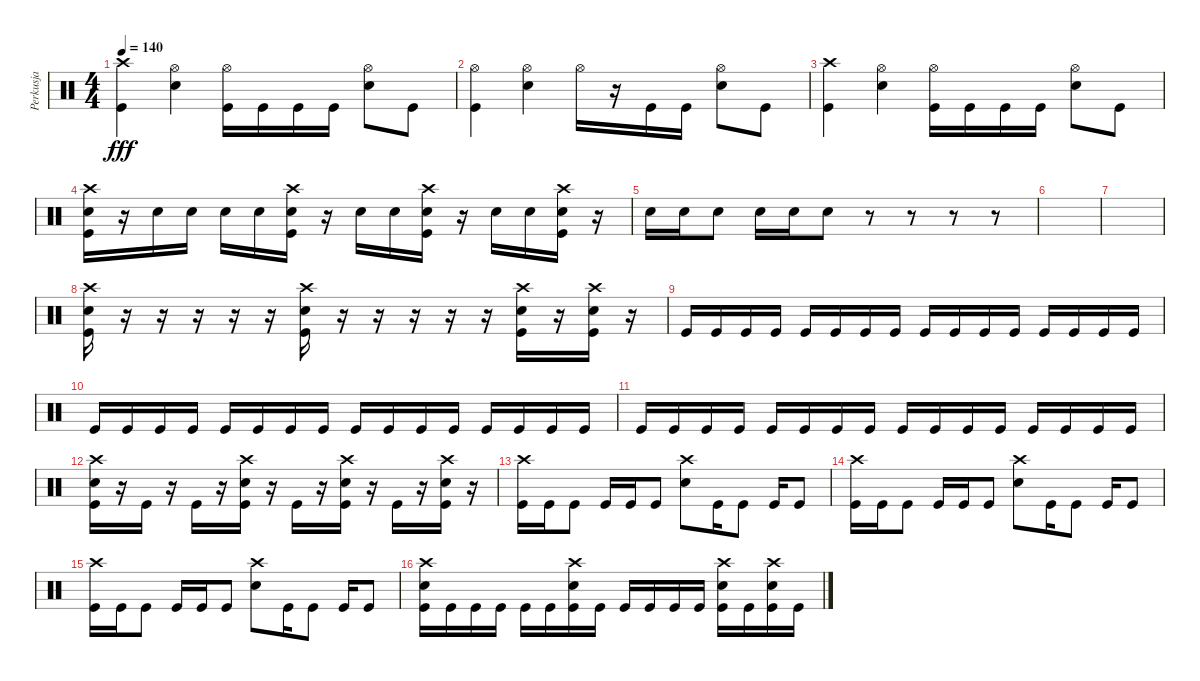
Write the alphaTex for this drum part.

\track ("Perkusja" "Perkusja") {instrument percussion}
\staff {score}
\articulation defaults
\ts (4 4)
\tempo 140
\clef neutral
\ks c
("Crash high (hit)" "Kick (hit)").4{dy fff} ("Hi-Hat (open)" "Electric Snare (hit)").4 ("Hi-Hat (open)" "Kick (hit)").16 "Kick (hit)".16 "Kick (hit)".16 "Kick (hit)".16 ("Hi-Hat (open)" "Electric Snare (hit)").8 "Kick (hit)".8 |
("Hi-Hat (open)" "Kick (hit)").4 ("Hi-Hat (open)" "Electric Snare (hit)").4 "Hi-Hat (open)".16 r.16 "Kick (hit)".16 "Kick (hit)".16 ("Hi-Hat (open)" "Electric Snare (hit)").8 "Kick (hit)".8 |
("Crash high (hit)" "Kick (hit)").4 ("Hi-Hat (open)" "Electric Snare (hit)").4 ("Hi-Hat (open)" "Kick (hit)").16 "Kick (hit)".16 "Kick (hit)".16 "Kick (hit)".16 ("Hi-Hat (open)" "Electric Snare (hit)").8 "Kick (hit)".8 |
("Crash high (hit)" "Electric Snare (hit)" "Kick (hit)").16 r.16 "Electric Snare (hit)".16 "Electric Snare (hit)".16 "Electric Snare (hit)".16 "Electric Snare (hit)".16 ("Crash high (hit)" "Electric Snare (hit)" "Kick (hit)").16 r.16 "Electric Snare (hit)".16 "Electric Snare (hit)".16 ("Crash high (hit)" "Electric Snare (hit)" "Kick (hit)").16 r.16 "Electric Snare (hit)".16 "Electric Snare (hit)".16 ("Crash high (hit)" "Electric Snare (hit)" "Kick (hit)").16 r.16 |
"Electric Snare (hit)".16 "Electric Snare (hit)".16 "Electric Snare (hit)".8 "Electric Snare (hit)".16 "Electric Snare (hit)".16 "Electric Snare (hit)".8 r.8 r.8 r.8 r.8 |
|
|
("Crash high (hit)" "Electric Snare (hit)" "Kick (hit)").16 r.16 r.16 r.16 r.16 r.16 ("Crash high (hit)" "Electric Snare (hit)" "Kick (hit)").16 r.16 r.16 r.16 r.16 r.16 ("Crash high (hit)" "Electric Snare (hit)" "Kick (hit)").16 r.16 ("Crash high (hit)" "Electric Snare (hit)" "Kick (hit)").16 r.16 |
"Kick (hit)".16 "Kick (hit)".16 "Kick (hit)".16 "Kick (hit)".16 "Kick (hit)".16 "Kick (hit)".16 "Kick (hit)".16 "Kick (hit)".16 "Kick (hit)".16 "Kick (hit)".16 "Kick (hit)".16 "Kick (hit)".16 "Kick (hit)".16 "Kick (hit)".16 "Kick (hit)".16 "Kick (hit)".16 |
"Kick (hit)".16 "Kick (hit)".16 "Kick (hit)".16 "Kick (hit)".16 "Kick (hit)".16 "Kick (hit)".16 "Kick (hit)".16 "Kick (hit)".16 "Kick (hit)".16 "Kick (hit)".16 "Kick (hit)".16 "Kick (hit)".16 "Kick (hit)".16 "Kick (hit)".16 "Kick (hit)".16 "Kick (hit)".16 |
"Kick (hit)".16 "Kick (hit)".16 "Kick (hit)".16 "Kick (hit)".16 "Kick (hit)".16 "Kick (hit)".16 "Kick (hit)".16 "Kick (hit)".16 "Kick (hit)".16 "Kick (hit)".16 "Kick (hit)".16 "Kick (hit)".16 "Kick (hit)".16 "Kick (hit)".16 "Kick (hit)".16 "Kick (hit)".16 |
("Crash high (hit)" "Electric Snare (hit)" "Kick (hit)").16 r.16 "Kick (hit)".16 r.16 "Kick (hit)".16 r.16 ("Crash high (hit)" "Electric Snare (hit)" "Kick (hit)").16 r.16 "Kick (hit)".16 r.16 ("Crash high (hit)" "Electric Snare (hit)" "Kick (hit)").16 r.16 "Kick (hit)".16 r.16 ("Crash high (hit)" "Electric Snare (hit)" "Kick (hit)").16 r.16 |
("Crash high (hit)" "Kick (hit)").16 "Kick (hit)".16 "Kick (hit)".8 "Kick (hit)".16 "Kick (hit)".16 "Kick (hit)".8 ("Crash high (hit)" "Electric Snare (hit)").8 "Kick (hit)".16 "Kick (hit)".8 "Kick (hit)".16 "Kick (hit)".8 |
("Crash high (hit)" "Kick (hit)").16 "Kick (hit)".16 "Kick (hit)".8 "Kick (hit)".16 "Kick (hit)".16 "Kick (hit)".8 ("Crash high (hit)" "Electric Snare (hit)").8 "Kick (hit)".16 "Kick (hit)".8 "Kick (hit)".16 "Kick (hit)".8 |
("Crash high (hit)" "Kick (hit)").16 "Kick (hit)".16 "Kick (hit)".8 "Kick (hit)".16 "Kick (hit)".16 "Kick (hit)".8 ("Crash high (hit)" "Electric Snare (hit)").8 "Kick (hit)".16 "Kick (hit)".8 "Kick (hit)".16 "Kick (hit)".8 |
("Crash high (hit)" "Electric Snare (hit)" "Kick (hit)").16 "Kick (hit)".16 "Kick (hit)".16 "Kick (hit)".16 "Kick (hit)".16 "Kick (hit)".16 ("Crash high (hit)" "Electric Snare (hit)" "Kick (hit)").16 "Kick (hit)".16 "Kick (hit)".16 "Kick (hit)".16 "Kick (hit)".16 "Kick (hit)".16 ("Crash high (hit)" "Electric Snare (hit)" "Kick (hit)").16 "Kick (hit)".16 ("Crash high (hit)" "Electric Snare (hit)" "Kick (hit)").16 "Kick (hit)".16
